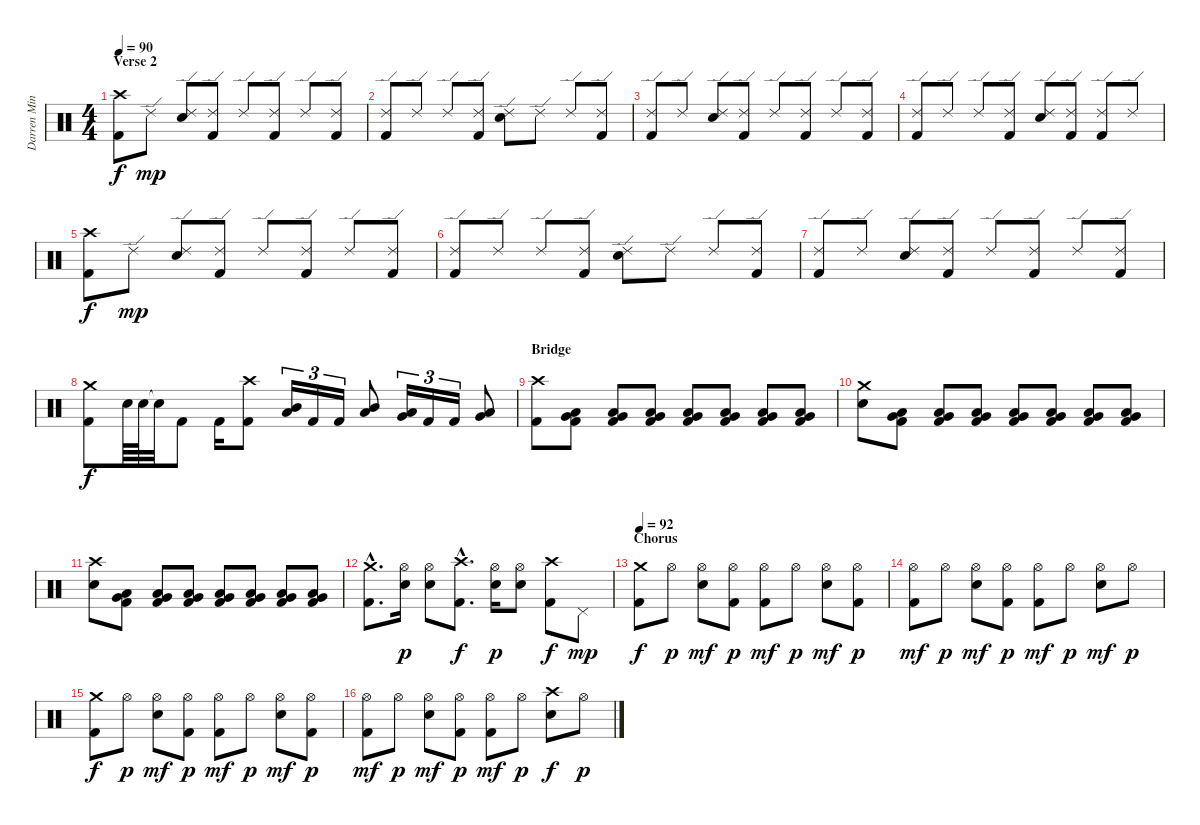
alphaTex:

\track ("Darren Minter" "Darren Min") {instrument percussion}
\staff {score}
\articulation defaults
\ts (4 4)
\section ("" "Verse 2")
\tempo 90
\clef neutral
\ks c
("Kick (hit) 2" "Crash high (hit)").8{dy f} "Ride (edge) 2".8{dy mp} ("Ride (edge) 2" "Snare (hit) 2").8 ("Kick (hit) 2" "Ride (edge) 2").8 "Ride (edge) 2".8 ("Kick (hit) 2" "Ride (edge) 2").8 "Ride (edge) 2".8 ("Kick (hit) 2" "Ride (edge) 2").8 |
("Kick (hit) 2" "Ride (edge) 2").8 "Ride (edge) 2".8 "Ride (edge) 2".8 ("Kick (hit) 2" "Ride (edge) 2").8 ("Ride (edge) 2" "Snare (hit) 2").8 "Ride (edge) 2".8 "Ride (edge) 2".8 ("Kick (hit) 2" "Ride (edge) 2").8 |
("Kick (hit) 2" "Ride (edge) 2").8 "Ride (edge) 2".8 ("Ride (edge) 2" "Snare (hit) 2").8 ("Kick (hit) 2" "Ride (edge) 2").8 "Ride (edge) 2".8 ("Kick (hit) 2" "Ride (edge) 2").8 "Ride (edge) 2".8 ("Kick (hit) 2" "Ride (edge) 2").8 |
("Kick (hit) 2" "Ride (edge) 2").8 "Ride (edge) 2".8 "Ride (edge) 2".8 ("Kick (hit) 2" "Ride (edge) 2").8 ("Ride (edge) 2" "Snare (hit) 2").8 ("Kick (hit) 2" "Ride (edge) 2").8 ("Kick (hit) 2" "Ride (edge) 2").8 "Ride (edge) 2".8 |
("Kick (hit) 2" "Crash high (hit)").8{dy f} "Ride (edge) 2".8{dy mp} ("Ride (edge) 2" "Snare (hit) 2").8 ("Kick (hit) 2" "Ride (edge) 2").8 "Ride (edge) 2".8 ("Kick (hit) 2" "Ride (edge) 2").8 "Ride (edge) 2".8 ("Kick (hit) 2" "Ride (edge) 2").8 |
("Kick (hit) 2" "Ride (edge) 2").8 "Ride (edge) 2".8 "Ride (edge) 2".8 ("Kick (hit) 2" "Ride (edge) 2").8 ("Ride (edge) 2" "Snare (hit) 2").8 "Ride (edge) 2".8 "Ride (edge) 2".8 ("Kick (hit) 2" "Ride (edge) 2").8 |
("Kick (hit) 2" "Ride (edge) 2").8 "Ride (edge) 2".8 ("Ride (edge) 2" "Snare (hit) 2").8 ("Kick (hit) 2" "Ride (edge) 2").8 "Ride (edge) 2".8 ("Kick (hit) 2" "Ride (edge) 2").8 "Ride (edge) 2".8 ("Kick (hit) 2" "Ride (edge) 2").8 |
("Kick (hit) 2" "Crash medium (hit)").8{dy f} "Snare (hit) 2".64 "Snare (hit) 2".64 "Snare (hit)"{t}.32 "Kick (hit) 2".8 "Kick (hit) 2".16 ("Kick (hit) 2" "Crash high (hit)").8 ("Mid Tom (hit)" "Low Tom (hit)").16{tu (3 2)} "Kick (hit) 2".16{tu (3 2)} "Kick (hit) 2".16{tu (3 2)} ("Mid Tom (hit)" "Low Tom (hit)").8 ("Low Tom (hit)" "Very Low Tom (hit)").16{tu (3 2)} "Kick (hit) 2".16{tu (3 2)} "Kick (hit) 2".16{tu (3 2)} ("Low Tom (hit)" "Very Low Tom (hit)").8 |
\section ("" "Bridge")
("Kick (hit) 2" "Crash high (hit)").8 ("Kick (hit) 2" "Low Tom (hit)" "Very Low Tom (hit)").8 ("Kick (hit) 2" "Low Tom (hit)" "Very Low Tom (hit)").8 ("Kick (hit) 2" "Low Tom (hit)" "Very Low Tom (hit)").8 ("Kick (hit) 2" "Low Tom (hit)" "Very Low Tom (hit)").8 ("Kick (hit) 2" "Low Tom (hit)" "Very Low Tom (hit)").8 ("Kick (hit) 2" "Low Tom (hit)" "Very Low Tom (hit)").8 ("Kick (hit) 2" "Low Tom (hit)" "Very Low Tom (hit)").8 |
("Crash medium (hit)" "Snare (hit) 2").8 ("Kick (hit) 2" "Low Tom (hit)" "Very Low Tom (hit)").8 ("Kick (hit) 2" "Low Tom (hit)" "Very Low Tom (hit)").8 ("Kick (hit) 2" "Low Tom (hit)" "Very Low Tom (hit)").8 ("Kick (hit) 2" "Low Tom (hit)" "Very Low Tom (hit)").8 ("Kick (hit) 2" "Low Tom (hit)" "Very Low Tom (hit)").8 ("Kick (hit) 2" "Low Tom (hit)" "Very Low Tom (hit)").8 ("Kick (hit) 2" "Low Tom (hit)" "Very Low Tom (hit)").8 |
("Crash high (hit)" "Snare (hit) 2").8 ("Kick (hit) 2" "Low Tom (hit)" "Very Low Tom (hit)").8 ("Kick (hit) 2" "Low Tom (hit)" "Very Low Tom (hit)").8 ("Kick (hit) 2" "Low Tom (hit)" "Very Low Tom (hit)").8 ("Kick (hit) 2" "Low Tom (hit)" "Very Low Tom (hit)").8 ("Kick (hit) 2" "Low Tom (hit)" "Very Low Tom (hit)").8 ("Kick (hit) 2" "Low Tom (hit)" "Very Low Tom (hit)").8 ("Kick (hit) 2" "Low Tom (hit)" "Very Low Tom (hit)").8 |
("Kick (hit) 2"{hac} "Crash medium (hit)"{hac}).8{d} ("Hi-Hat (open)" "Snare (hit) 2").16{dy p} ("Hi-Hat (open)" "Snare (hit) 2").8 ("Kick (hit) 2"{hac} "Crash high (hit)"{hac}).8{d dy f} ("Hi-Hat (open)" "Snare (hit) 2").16{dy p} ("Hi-Hat (open)" "Snare (hit) 2").8 ("Kick (hit) 2" "Crash high (hit)").8{dy f} "Pedal Hi-Hat (hit)".8{dy mp} |
\section ("" "Chorus")
\tempo 92
("Kick (hit) 2" "Crash medium (hit)").8{dy f} "Hi-Hat (open)".8{dy p} ("Hi-Hat (open)" "Snare (hit) 2").8{dy mf} ("Kick (hit) 2" "Hi-Hat (open)").8{dy p} ("Kick (hit) 2" "Hi-Hat (open)").8{dy mf} "Hi-Hat (open)".8{dy p} ("Hi-Hat (open)" "Snare (hit) 2").8{dy mf} ("Kick (hit) 2" "Hi-Hat (open)").8{dy p} |
("Kick (hit) 2" "Hi-Hat (open)").8{dy mf} "Hi-Hat (open)".8{dy p} ("Hi-Hat (open)" "Snare (hit) 2").8{dy mf} ("Kick (hit) 2" "Hi-Hat (open)").8{dy p} ("Kick (hit) 2" "Hi-Hat (open)").8{dy mf} "Hi-Hat (open)".8{dy p} ("Hi-Hat (open)" "Snare (hit) 2").8{dy mf} "Hi-Hat (open)".8{dy p} |
("Kick (hit) 2" "Crash medium (hit)").8{dy f} "Hi-Hat (open)".8{dy p} ("Hi-Hat (open)" "Snare (hit) 2").8{dy mf} ("Kick (hit) 2" "Hi-Hat (open)").8{dy p} ("Kick (hit) 2" "Hi-Hat (open)").8{dy mf} "Hi-Hat (open)".8{dy p} ("Hi-Hat (open)" "Snare (hit) 2").8{dy mf} ("Kick (hit) 2" "Hi-Hat (open)").8{dy p} |
("Kick (hit) 2" "Hi-Hat (open)").8{dy mf} "Hi-Hat (open)".8{dy p} ("Hi-Hat (open)" "Snare (hit) 2").8{dy mf} ("Kick (hit) 2" "Hi-Hat (open)").8{dy p} ("Kick (hit) 2" "Hi-Hat (open)").8{dy mf} "Hi-Hat (open)".8{dy p} ("Crash high (hit)" "Snare (hit) 2").8{dy f} "Hi-Hat (open)".8{dy p}
